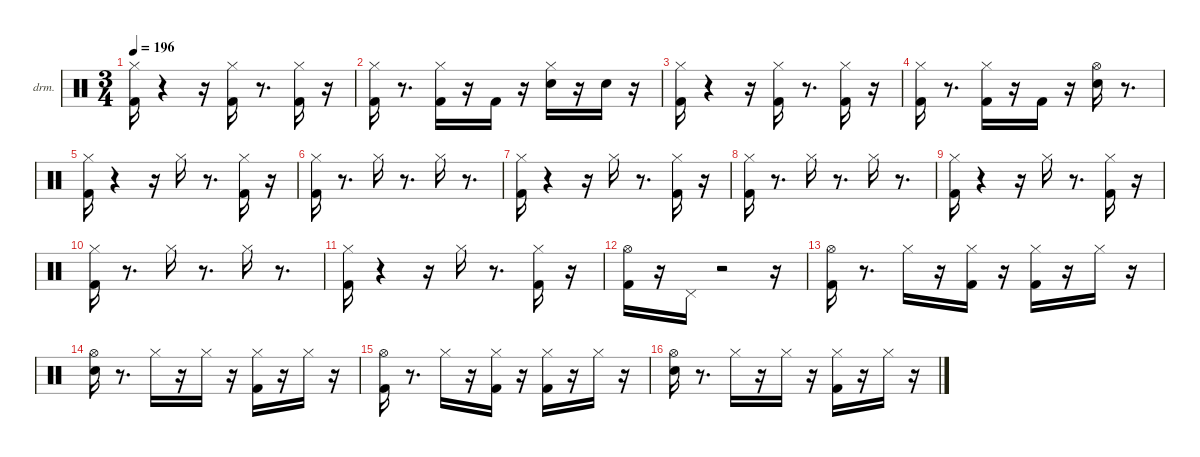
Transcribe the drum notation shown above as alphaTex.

\hideDynamics
\bracketExtendMode nobrackets
\firstSystemTrackNameOrientation horizontal
\otherSystemsTrackNameOrientation horizontal
\track ("EZdrummer 3" "drm.") {instrument percussion}
\staff {score}
\articulation defaults
\ts (3 4)
\tempo 196
\clef neutral
\ks aminor
("Kick (hit) 2" "Hi-Hat (closed)"{acc #}).16{dy fff beam Down} r.4{beam Down} r.16{beam Down} ("Kick (hit) 2" "Hi-Hat (closed)"{acc #}).16{dy ff beam Down} r.8{d beam Down} ("Kick (hit) 2" "Hi-Hat (closed)"{acc #}).16{dy mf beam Down} r.16{beam Down} |
("Kick (hit) 2" "Hi-Hat (closed)"{acc #}).16{dy ff beam Down} r.8{d beam Down} ("Kick (hit) 2" "Hi-Hat (closed)"{acc #}).16{dy mf beam Down} r.16{beam Down} "Kick (hit) 2".16{dy ff beam Up} r.16{beam Up} ("Snare (hit) 2" "Hi-Hat (closed)"{acc #}).16{dy f beam Down} r.16{beam Down} "Snare (hit) 2".16{dy p beam Down} r.16{beam Down} |
("Kick (hit) 2" "Hi-Hat (closed)"{acc #}).16{dy fff beam Down} r.4{beam Down} r.16{beam Down} ("Kick (hit) 2" "Hi-Hat (closed)"{acc #}).16{dy f beam Down} r.8{d beam Down} ("Kick (hit) 2" "Hi-Hat (closed)"{acc #}).16{dy mf beam Down} r.16{beam Down} |
("Kick (hit) 2" "Hi-Hat (closed)"{acc #}).16{dy ff beam Down} r.8{d beam Down} ("Kick (hit) 2" "Hi-Hat (closed)"{acc #}).16{dy mf beam Down} r.16{beam Down} "Kick (hit) 2".16{dy f beam Up} r.16{beam Up} ("Snare (hit) 2" "Hi-Hat (open)"{acc #}).16{dy fff beam Down} r.8{d beam Down} |
("Kick (hit) 2" "Hi-Hat (closed)"{acc #}).16{beam Down} r.4{beam Down} r.16{beam Down} "Hi-Hat (closed)"{acc #}.16{dy f beam Down} r.8{d beam Down} ("Kick (hit) 2" "Hi-Hat (closed)"{acc #}).16{dy mf beam Down} r.16{beam Down} |
("Kick (hit) 2" "Hi-Hat (closed)"{acc #}).16{dy fff beam Down} r.8{d beam Down} "Hi-Hat (closed)"{acc #}.16{dy mf beam Down} r.8{d beam Down} "Hi-Hat (closed)"{acc #}.16{beam Down} r.8{d beam Down} |
("Kick (hit) 2" "Hi-Hat (closed)"{acc #}).16{dy fff beam Down} r.4{beam Down} r.16{beam Down} "Hi-Hat (closed)"{acc #}.16{dy f beam Down} r.8{d beam Down} ("Kick (hit) 2" "Hi-Hat (closed)"{acc #}).16{dy mp beam Down} r.16{beam Down} |
("Kick (hit) 2" "Hi-Hat (closed)"{acc #}).16{dy fff beam Down} r.8{d beam Down} "Hi-Hat (closed)"{acc #}.16{dy mf beam Down} r.8{d beam Down} "Hi-Hat (closed)"{acc #}.16{beam Down} r.8{d beam Down} |
("Kick (hit) 2" "Hi-Hat (closed)"{acc #}).16{dy fff beam Down} r.4{beam Down} r.16{beam Down} "Hi-Hat (closed)"{acc #}.16{dy f beam Down} r.8{d beam Down} ("Kick (hit) 2" "Hi-Hat (closed)"{acc #}).16{dy mp beam Down} r.16{beam Down} |
("Kick (hit) 2" "Hi-Hat (closed)"{acc #}).16{dy fff beam Down} r.8{d beam Down} "Hi-Hat (closed)"{acc #}.16{dy mf beam Down} r.8{d beam Down} "Hi-Hat (closed)"{acc #}.16{beam Down} r.8{d beam Down} |
("Kick (hit) 2" "Hi-Hat (closed)"{acc #}).16{dy fff beam Down} r.4{beam Down} r.16{beam Down} "Hi-Hat (closed)"{acc #}.16{dy f beam Down} r.8{d beam Down} ("Kick (hit) 2" "Hi-Hat (closed)"{acc #}).16{dy mf beam Down} r.16{beam Down} |
("Kick (hit) 2" "Hi-Hat (open)"{acc #}).16{dy fff beam Down} r.16{beam Down} "Pedal Hi-Hat (hit)"{acc #}.16{dy ff beam Up} r.2{beam Up} r.16{beam Up} |
("Kick (hit) 2" "Hi-Hat (open)"{acc #}).16{dy fff beam Down} r.8{d beam Down} "Hi-Hat (closed)"{acc #}.16{dy ff beam Down} r.16{beam Down} ("Kick (hit) 2" "Hi-Hat (closed)"{acc #}).16{dy mf beam Down} r.16{beam Down} ("Kick (hit) 2" "Hi-Hat (closed)"{acc #}).16{dy ff beam Down} r.16{beam Down} "Hi-Hat (closed)"{acc #}.16{dy ppp beam Down} r.16{beam Down} |
("Snare (hit) 2" "Hi-Hat (open)"{acc #}).16{dy ff beam Down} r.8{d beam Down} "Hi-Hat (closed)"{acc #}.16{beam Down} r.16{beam Down} "Hi-Hat (closed)"{acc #}.16{dy ppp beam Down} r.16{beam Down} ("Kick (hit) 2" "Hi-Hat (closed)"{acc #}).16{dy f beam Down} r.16{beam Down} "Hi-Hat (closed)"{acc #}.16{dy ppp beam Down} r.16{beam Down} |
("Kick (hit) 2" "Hi-Hat (open)"{acc #}).16{dy fff beam Down} r.8{d beam Down} "Hi-Hat (closed)"{acc #}.16{dy ff beam Down} r.16{beam Down} ("Kick (hit) 2" "Hi-Hat (closed)"{acc #}).16{dy mf beam Down} r.16{beam Down} ("Kick (hit) 2" "Hi-Hat (closed)"{acc #}).16{dy ff beam Down} r.16{beam Down} "Hi-Hat (closed)"{acc #}.16{dy ppp beam Down} r.16{beam Down} |
("Snare (hit) 2" "Hi-Hat (open)"{acc #}).16{dy ff beam Down} r.8{d beam Down} "Hi-Hat (closed)"{acc #}.16{beam Down} r.16{beam Down} "Hi-Hat (closed)"{acc #}.16{dy ppp beam Down} r.16{beam Down} ("Kick (hit) 2" "Hi-Hat (closed)"{acc #}).16{dy ff beam Down} r.16{beam Down} "Hi-Hat (closed)"{acc #}.16{dy ppp beam Down} r.16{beam Down}
